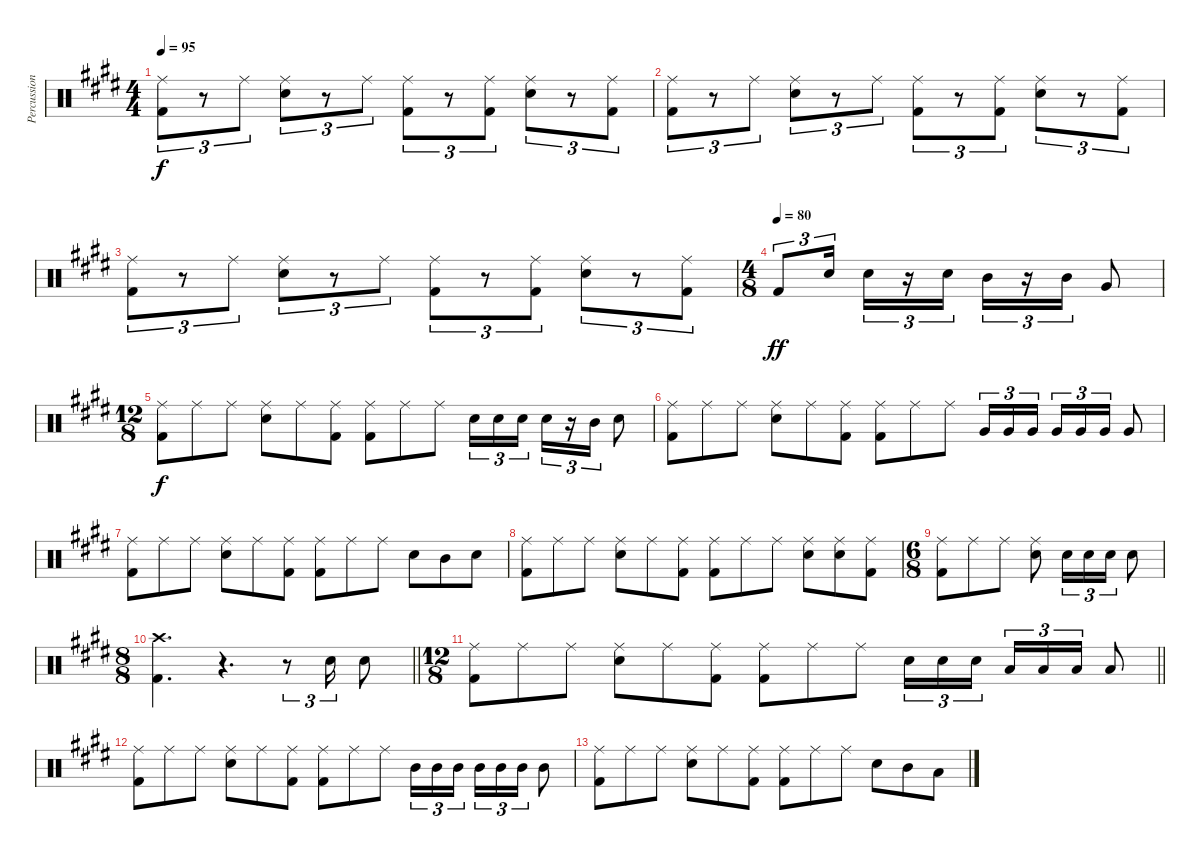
\track ("Percussion" "Percussion") {instrument percussion}
\staff {score}
\articulation defaults
\ts (4 4)
\tempo 95
\clef neutral
\ks e
("Ride (middle)" "Kick (hit) 2").8{tu (3 2) dy f} r.8{tu (3 2)} "Ride (middle)".8{tu (3 2)} ("Ride (middle)" "Snare (hit) 2").8{tu (3 2)} r.8{tu (3 2)} "Ride (middle)".8{tu (3 2)} ("Ride (middle)" "Kick (hit) 2").8{tu (3 2)} r.8{tu (3 2)} ("Ride (middle)" "Kick (hit) 2").8{tu (3 2)} ("Ride (middle)" "Snare (hit) 2").8{tu (3 2)} r.8{tu (3 2)} ("Ride (middle)" "Kick (hit) 2").8{tu (3 2)} |
("Ride (middle)" "Kick (hit) 2").8{tu (3 2)} r.8{tu (3 2)} "Ride (middle)".8{tu (3 2)} ("Ride (middle)" "Snare (hit) 2").8{tu (3 2)} r.8{tu (3 2)} "Ride (middle)".8{tu (3 2)} ("Ride (middle)" "Kick (hit) 2").8{tu (3 2)} r.8{tu (3 2)} ("Ride (middle)" "Kick (hit) 2").8{tu (3 2)} ("Ride (middle)" "Snare (hit) 2").8{tu (3 2)} r.8{tu (3 2)} ("Ride (middle)" "Kick (hit) 2").8{tu (3 2)} |
("Ride (middle)" "Kick (hit) 2").8{tu (3 2)} r.8{tu (3 2)} "Ride (middle)".8{tu (3 2)} ("Ride (middle)" "Snare (hit) 2").8{tu (3 2)} r.8{tu (3 2)} "Ride (middle)".8{tu (3 2)} ("Ride (middle)" "Kick (hit) 2").8{tu (3 2)} r.8{tu (3 2)} ("Ride (middle)" "Kick (hit) 2").8{tu (3 2)} ("Ride (middle)" "Snare (hit) 2").8{tu (3 2)} r.8{tu (3 2)} ("Ride (middle)" "Kick (hit) 2").8{tu (3 2)} |
\ts (4 8)
\tempo (80)
"Kick (hit) 2".8{tu (3 2) dy ff} "Snare (hit) 2".16{tu (3 2)} "Snare (hit) 2".16{tu (3 2)} r.16{tu (3 2)} "Snare (hit) 2".16{tu (3 2)} "Mid Tom (hit)".16{tu (3 2)} r.16{tu (3 2)} "Mid Tom (hit)".16{tu (3 2)} "Very Low Tom (hit)".8 |
\ts (12 8)
("Ride (middle)" "Kick (hit) 2").8{dy f} "Ride (middle)".8 "Ride (middle)".8 ("Ride (middle)" "Snare (hit) 2").8 "Ride (middle)".8 ("Ride (middle)" "Kick (hit) 2").8 ("Ride (middle)" "Kick (hit) 2").8 "Ride (middle)".8 "Ride (middle)".8 "Snare (hit) 2".16{tu (3 2)} "Snare (hit) 2".16{tu (3 2)} "Snare (hit) 2".16{tu (3 2) beam splitsecondary} "Snare (hit) 2".16{tu (3 2)} r.16{tu (3 2)} "Mid Tom (hit)".16{tu (3 2)} "Snare (hit) 2".8 |
("Ride (middle)" "Kick (hit) 2").8 "Ride (middle)".8 "Ride (middle)".8 ("Ride (middle)" "Snare (hit) 2").8 "Ride (middle)".8 ("Ride (middle)" "Kick (hit) 2").8 ("Ride (middle)" "Kick (hit) 2").8 "Ride (middle)".8 "Ride (middle)".8 "Very Low Tom (hit)".16{tu (3 2)} "Very Low Tom (hit)".16{tu (3 2)} "Very Low Tom (hit)".16{tu (3 2) beam splitsecondary} "Very Low Tom (hit)".16{tu (3 2)} "Very Low Tom (hit)".16{tu (3 2)} "Very Low Tom (hit)".16{tu (3 2)} "Very Low Tom (hit)".8 |
("Ride (middle)" "Kick (hit) 2").8 "Ride (middle)".8 "Ride (middle)".8 ("Ride (middle)" "Snare (hit) 2").8 "Ride (middle)".8 ("Ride (middle)" "Kick (hit) 2").8 ("Ride (middle)" "Kick (hit) 2").8 "Ride (middle)".8 "Ride (middle)".8 "Snare (hit) 2".8 "Mid Tom (hit)".8 "Snare (hit) 2".8 |
("Ride (middle)" "Kick (hit) 2").8 "Ride (middle)".8 "Ride (middle)".8 ("Ride (middle)" "Snare (hit) 2").8 "Ride (middle)".8 ("Ride (middle)" "Kick (hit) 2").8 ("Ride (middle)" "Kick (hit) 2").8 "Ride (middle)".8 "Ride (middle)".8 ("Ride (middle)" "Snare (hit) 2").8 ("Ride (middle)" "Snare (hit) 2").8 ("Ride (middle)" "Kick (hit) 2").8 |
\ts (6 8)
("Ride (middle)" "Kick (hit) 2").8 "Ride (middle)".8 "Ride (middle)".8 ("Ride (middle)" "Snare (hit) 2").8 "Snare (hit) 2".16{tu (3 2)} "Snare (hit) 2".16{tu (3 2)} "Snare (hit) 2".16{tu (3 2)} "Snare (hit) 2".8 |
\ts (8 8)
\barLineRight lightlight
("Crash high (hit)" "Kick (hit) 2").4{d} r.4{d} r.8{tu (3 2)} "Snare (hit) 2".16{tu (3 2)} "Snare (hit) 2".8 |
\ts (12 8)
\barLineRight lightlight
("Ride (middle)" "Kick (hit) 2").8 "Ride (middle)".8 "Ride (middle)".8 ("Ride (middle)" "Snare (hit) 2").8 "Ride (middle)".8 ("Ride (middle)" "Kick (hit) 2").8 ("Ride (middle)" "Kick (hit) 2").8 "Ride (middle)".8 "Ride (middle)".8 "Snare (hit) 2".16{tu (3 2)} "Snare (hit) 2".16{tu (3 2)} "Snare (hit) 2".16{tu (3 2) beam splitsecondary} "Low Floor Tom (hit)".16{tu (3 2)} "Low Floor Tom (hit)".16{tu (3 2)} "Low Floor Tom (hit)".16{tu (3 2)} "Low Floor Tom (hit)".8 |
("Ride (middle)" "Kick (hit) 2").8 "Ride (middle)".8 "Ride (middle)".8 ("Ride (middle)" "Snare (hit) 2").8 "Ride (middle)".8 ("Ride (middle)" "Kick (hit) 2").8 ("Ride (middle)" "Kick (hit) 2").8 "Ride (middle)".8 "Ride (middle)".8 "Mid Tom (hit)".16{tu (3 2)} "Mid Tom (hit)".16{tu (3 2)} "Mid Tom (hit)".16{tu (3 2) beam splitsecondary} "Mid Tom (hit)".16{tu (3 2)} "Mid Tom (hit)".16{tu (3 2)} "Mid Tom (hit)".16{tu (3 2)} "Mid Tom (hit)".8 |
("Ride (middle)" "Kick (hit) 2").8 "Ride (middle)".8 "Ride (middle)".8 ("Ride (middle)" "Snare (hit) 2").8 "Ride (middle)".8 ("Ride (middle)" "Kick (hit) 2").8 ("Ride (middle)" "Kick (hit) 2").8 "Ride (middle)".8 "Ride (middle)".8 "Snare (hit) 2".8 "Mid Tom (hit)".8 "Low Floor Tom (hit)".8
